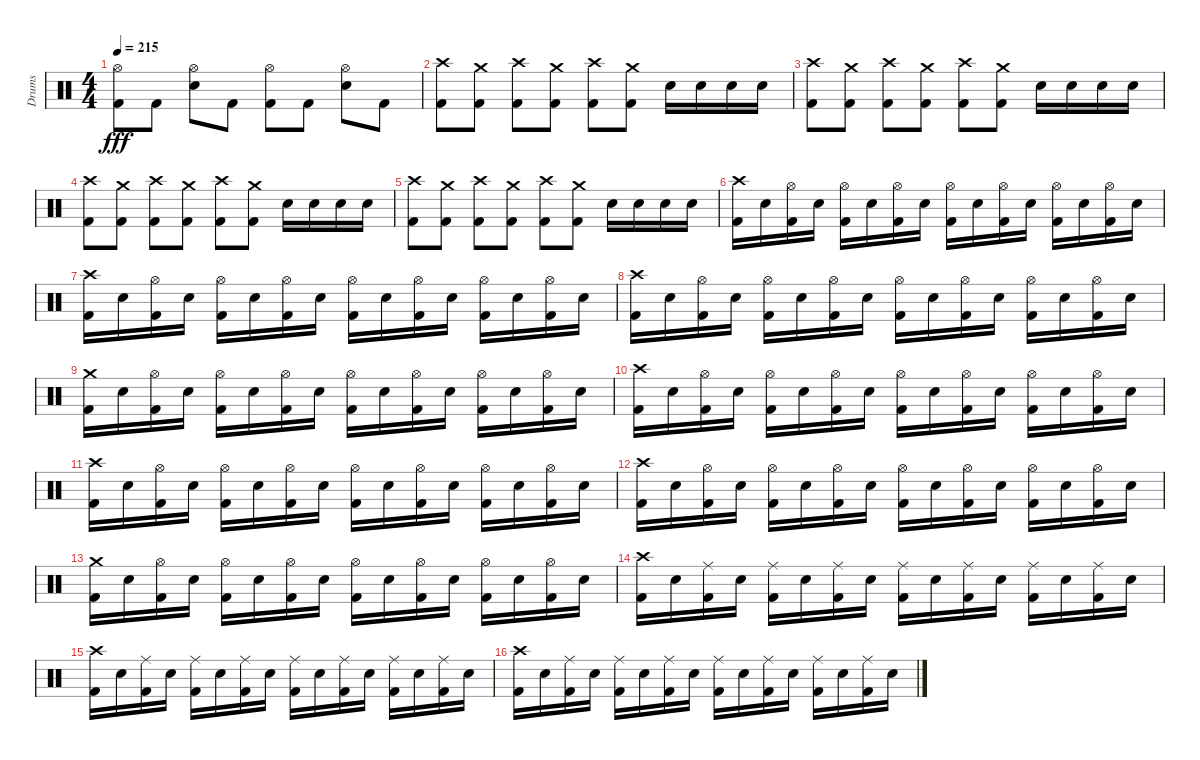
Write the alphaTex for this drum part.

\track ("Drums" "Drums") {instrument percussion}
\staff {score}
\articulation defaults
\ts (4 4)
\tempo 215
\clef neutral
\ks c
("Hi-Hat (open)" "Kick (hit) 2").8{dy fff} "Kick (hit) 2".8 ("Hi-Hat (open)" "Electric Snare (hit)").8 "Kick (hit) 2".8 ("Hi-Hat (open)" "Kick (hit) 2").8 "Kick (hit) 2".8 ("Hi-Hat (open)" "Electric Snare (hit)").8 "Kick (hit) 2".8 |
("Crash high (hit)" "Kick (hit) 2").8 ("Crash medium (hit)" "Kick (hit) 2").8 ("Crash high (hit)" "Kick (hit) 2").8 ("Crash medium (hit)" "Kick (hit) 2").8 ("Crash high (hit)" "Kick (hit) 2").8 ("Crash medium (hit)" "Kick (hit) 2").8 "Electric Snare (hit)".16 "Electric Snare (hit)".16 "Electric Snare (hit)".16 "Electric Snare (hit)".16 |
("Crash high (hit)" "Kick (hit) 2").8 ("Crash medium (hit)" "Kick (hit) 2").8 ("Crash high (hit)" "Kick (hit) 2").8 ("Crash medium (hit)" "Kick (hit) 2").8 ("Crash high (hit)" "Kick (hit) 2").8 ("Crash medium (hit)" "Kick (hit) 2").8 "Electric Snare (hit)".16 "Electric Snare (hit)".16 "Electric Snare (hit)".16 "Electric Snare (hit)".16 |
("Crash high (hit)" "Kick (hit) 2").8 ("Crash medium (hit)" "Kick (hit) 2").8 ("Crash high (hit)" "Kick (hit) 2").8 ("Crash medium (hit)" "Kick (hit) 2").8 ("Crash high (hit)" "Kick (hit) 2").8 ("Crash medium (hit)" "Kick (hit) 2").8 "Electric Snare (hit)".16 "Electric Snare (hit)".16 "Electric Snare (hit)".16 "Electric Snare (hit)".16 |
("Crash high (hit)" "Kick (hit) 2").8 ("Crash medium (hit)" "Kick (hit) 2").8 ("Crash high (hit)" "Kick (hit) 2").8 ("Crash medium (hit)" "Kick (hit) 2").8 ("Crash high (hit)" "Kick (hit) 2").8 ("Crash medium (hit)" "Kick (hit) 2").8 "Electric Snare (hit)".16 "Electric Snare (hit)".16 "Electric Snare (hit)".16 "Electric Snare (hit)".16 |
("Crash high (hit)" "Kick (hit) 2").16 "Electric Snare (hit)".16 ("Hi-Hat (open)" "Kick (hit) 2").16 "Electric Snare (hit)".16 ("Hi-Hat (open)" "Kick (hit) 2").16 "Electric Snare (hit)".16 ("Hi-Hat (open)" "Kick (hit) 2").16 "Electric Snare (hit)".16 ("Hi-Hat (open)" "Kick (hit) 2").16 "Electric Snare (hit)".16 ("Hi-Hat (open)" "Kick (hit) 2").16 "Electric Snare (hit)".16 ("Hi-Hat (open)" "Kick (hit) 2").16 "Electric Snare (hit)".16 ("Hi-Hat (open)" "Kick (hit) 2").16 "Electric Snare (hit)".16 |
("Crash high (hit)" "Kick (hit) 2").16 "Electric Snare (hit)".16 ("Hi-Hat (open)" "Kick (hit) 2").16 "Electric Snare (hit)".16 ("Hi-Hat (open)" "Kick (hit) 2").16 "Electric Snare (hit)".16 ("Hi-Hat (open)" "Kick (hit) 2").16 "Electric Snare (hit)".16 ("Hi-Hat (open)" "Kick (hit) 2").16 "Electric Snare (hit)".16 ("Hi-Hat (open)" "Kick (hit) 2").16 "Electric Snare (hit)".16 ("Hi-Hat (open)" "Kick (hit) 2").16 "Electric Snare (hit)".16 ("Hi-Hat (open)" "Kick (hit) 2").16 "Electric Snare (hit)".16 |
("Crash high (hit)" "Kick (hit) 2").16 "Electric Snare (hit)".16 ("Hi-Hat (open)" "Kick (hit) 2").16 "Electric Snare (hit)".16 ("Hi-Hat (open)" "Kick (hit) 2").16 "Electric Snare (hit)".16 ("Hi-Hat (open)" "Kick (hit) 2").16 "Electric Snare (hit)".16 ("Hi-Hat (open)" "Kick (hit) 2").16 "Electric Snare (hit)".16 ("Hi-Hat (open)" "Kick (hit) 2").16 "Electric Snare (hit)".16 ("Hi-Hat (open)" "Kick (hit) 2").16 "Electric Snare (hit)".16 ("Hi-Hat (open)" "Kick (hit) 2").16 "Electric Snare (hit)".16 |
("Crash medium (hit)" "Kick (hit) 2").16 "Electric Snare (hit)".16 ("Hi-Hat (open)" "Kick (hit) 2").16 "Electric Snare (hit)".16 ("Hi-Hat (open)" "Kick (hit) 2").16 "Electric Snare (hit)".16 ("Hi-Hat (open)" "Kick (hit) 2").16 "Electric Snare (hit)".16 ("Hi-Hat (open)" "Kick (hit) 2").16 "Electric Snare (hit)".16 ("Hi-Hat (open)" "Kick (hit) 2").16 "Electric Snare (hit)".16 ("Hi-Hat (open)" "Kick (hit) 2").16 "Electric Snare (hit)".16 ("Hi-Hat (open)" "Kick (hit) 2").16 "Electric Snare (hit)".16 |
("Crash high (hit)" "Kick (hit) 2").16 "Electric Snare (hit)".16 ("Hi-Hat (open)" "Kick (hit) 2").16 "Electric Snare (hit)".16 ("Hi-Hat (open)" "Kick (hit) 2").16 "Electric Snare (hit)".16 ("Hi-Hat (open)" "Kick (hit) 2").16 "Electric Snare (hit)".16 ("Hi-Hat (open)" "Kick (hit) 2").16 "Electric Snare (hit)".16 ("Hi-Hat (open)" "Kick (hit) 2").16 "Electric Snare (hit)".16 ("Hi-Hat (open)" "Kick (hit) 2").16 "Electric Snare (hit)".16 ("Hi-Hat (open)" "Kick (hit) 2").16 "Electric Snare (hit)".16 |
("Crash high (hit)" "Kick (hit) 2").16 "Electric Snare (hit)".16 ("Hi-Hat (open)" "Kick (hit) 2").16 "Electric Snare (hit)".16 ("Hi-Hat (open)" "Kick (hit) 2").16 "Electric Snare (hit)".16 ("Hi-Hat (open)" "Kick (hit) 2").16 "Electric Snare (hit)".16 ("Hi-Hat (open)" "Kick (hit) 2").16 "Electric Snare (hit)".16 ("Hi-Hat (open)" "Kick (hit) 2").16 "Electric Snare (hit)".16 ("Hi-Hat (open)" "Kick (hit) 2").16 "Electric Snare (hit)".16 ("Hi-Hat (open)" "Kick (hit) 2").16 "Electric Snare (hit)".16 |
("Crash high (hit)" "Kick (hit) 2").16 "Electric Snare (hit)".16 ("Hi-Hat (open)" "Kick (hit) 2").16 "Electric Snare (hit)".16 ("Hi-Hat (open)" "Kick (hit) 2").16 "Electric Snare (hit)".16 ("Hi-Hat (open)" "Kick (hit) 2").16 "Electric Snare (hit)".16 ("Hi-Hat (open)" "Kick (hit) 2").16 "Electric Snare (hit)".16 ("Hi-Hat (open)" "Kick (hit) 2").16 "Electric Snare (hit)".16 ("Hi-Hat (open)" "Kick (hit) 2").16 "Electric Snare (hit)".16 ("Hi-Hat (open)" "Kick (hit) 2").16 "Electric Snare (hit)".16 |
("Crash medium (hit)" "Kick (hit) 2").16 "Electric Snare (hit)".16 ("Hi-Hat (open)" "Kick (hit) 2").16 "Electric Snare (hit)".16 ("Hi-Hat (open)" "Kick (hit) 2").16 "Electric Snare (hit)".16 ("Hi-Hat (open)" "Kick (hit) 2").16 "Electric Snare (hit)".16 ("Hi-Hat (open)" "Kick (hit) 2").16 "Electric Snare (hit)".16 ("Hi-Hat (open)" "Kick (hit) 2").16 "Electric Snare (hit)".16 ("Hi-Hat (open)" "Kick (hit) 2").16 "Electric Snare (hit)".16 ("Hi-Hat (open)" "Kick (hit) 2").16 "Electric Snare (hit)".16 |
("Crash high (hit)" "Kick (hit) 2").16 "Electric Snare (hit)".16 ("Ride (middle)" "Kick (hit) 2").16 "Electric Snare (hit)".16 ("Ride (middle)" "Kick (hit) 2").16 "Electric Snare (hit)".16 ("Ride (middle)" "Kick (hit) 2").16 "Electric Snare (hit)".16 ("Ride (middle)" "Kick (hit) 2").16 "Electric Snare (hit)".16 ("Ride (middle)" "Kick (hit) 2").16 "Electric Snare (hit)".16 ("Ride (middle)" "Kick (hit) 2").16 "Electric Snare (hit)".16 ("Ride (middle)" "Kick (hit) 2").16 "Electric Snare (hit)".16 |
("Crash high (hit)" "Kick (hit) 2").16 "Electric Snare (hit)".16 ("Ride (middle)" "Kick (hit) 2").16 "Electric Snare (hit)".16 ("Ride (middle)" "Kick (hit) 2").16 "Electric Snare (hit)".16 ("Ride (middle)" "Kick (hit) 2").16 "Electric Snare (hit)".16 ("Ride (middle)" "Kick (hit) 2").16 "Electric Snare (hit)".16 ("Ride (middle)" "Kick (hit) 2").16 "Electric Snare (hit)".16 ("Ride (middle)" "Kick (hit) 2").16 "Electric Snare (hit)".16 ("Ride (middle)" "Kick (hit) 2").16 "Electric Snare (hit)".16 |
("Crash high (hit)" "Kick (hit) 2").16 "Electric Snare (hit)".16 ("Ride (middle)" "Kick (hit) 2").16 "Electric Snare (hit)".16 ("Ride (middle)" "Kick (hit) 2").16 "Electric Snare (hit)".16 ("Ride (middle)" "Kick (hit) 2").16 "Electric Snare (hit)".16 ("Ride (middle)" "Kick (hit) 2").16 "Electric Snare (hit)".16 ("Ride (middle)" "Kick (hit) 2").16 "Electric Snare (hit)".16 ("Ride (middle)" "Kick (hit) 2").16 "Electric Snare (hit)".16 ("Ride (middle)" "Kick (hit) 2").16 "Electric Snare (hit)".16
